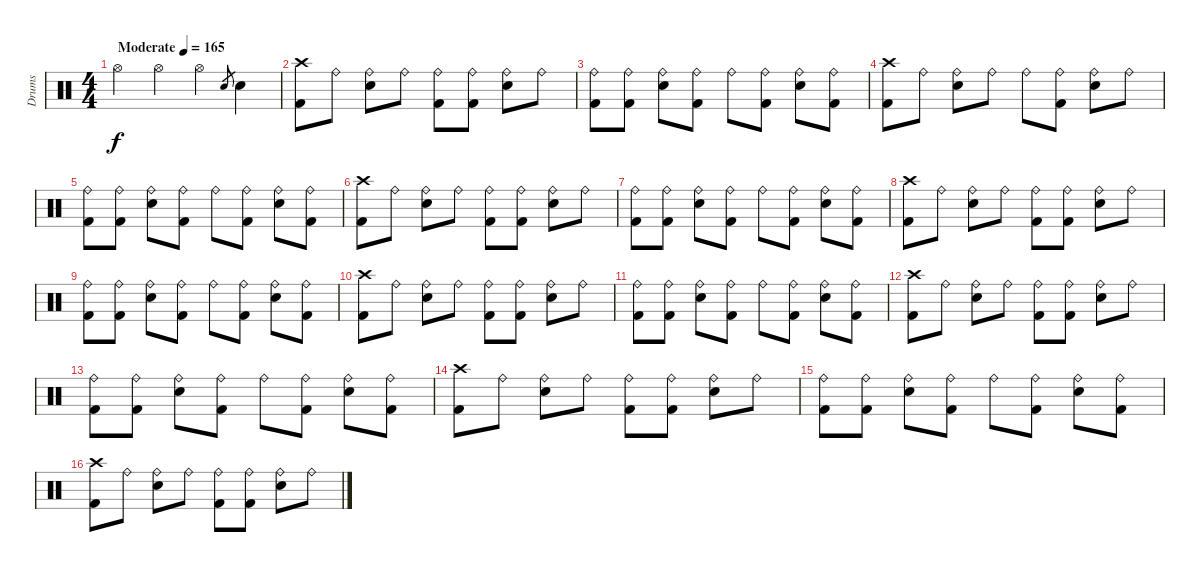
\track ("Drums" "Drums") {instrument percussion}
\staff {score}
\articulation defaults
\ts (4 4)
\tempo (165 "Moderate")
\clef neutral
\ks c "Hi-Hat (open)".4{dy f} "Hi-Hat (open)".4 "Hi-Hat (open)".4 "Snare (hit) 2".8{gr} "Snare (hit) 2".4
|
("Crash high (hit)" "Kick (hit) 2").8 "Ride (bell)".8 ("Ride (bell)" "Snare (hit) 2").8 "Ride (bell)".8 ("Ride (bell)" "Kick (hit) 2").8 ("Ride (bell)" "Kick (hit) 2").8 ("Ride (bell)" "Snare (hit) 2").8 "Ride (bell)".8 |
("Ride (bell)" "Kick (hit) 2").8 ("Ride (bell)" "Kick (hit) 2").8 ("Ride (bell)" "Snare (hit) 2").8 ("Ride (bell)" "Kick (hit) 2").8 "Ride (bell)".8 ("Ride (bell)" "Kick (hit) 2").8 ("Ride (bell)" "Snare (hit) 2").8 ("Ride (bell)" "Kick (hit) 2").8 |
("Crash high (hit)" "Kick (hit) 2").8 "Ride (bell)".8 ("Ride (bell)" "Snare (hit) 2").8 "Ride (bell)".8 "Ride (bell)".8 ("Ride (bell)" "Kick (hit) 2").8 ("Ride (bell)" "Snare (hit) 2").8 "Ride (bell)".8 |
("Ride (bell)" "Kick (hit) 2").8 ("Ride (bell)" "Kick (hit) 2").8 ("Ride (bell)" "Snare (hit) 2").8 ("Ride (bell)" "Kick (hit) 2").8 "Ride (bell)".8 ("Ride (bell)" "Kick (hit) 2").8 ("Ride (bell)" "Snare (hit) 2").8 ("Ride (bell)" "Kick (hit) 2").8 |
("Crash high (hit)" "Kick (hit) 2").8 "Ride (bell)".8 ("Ride (bell)" "Snare (hit) 2").8 "Ride (bell)".8 ("Ride (bell)" "Kick (hit) 2").8 ("Ride (bell)" "Kick (hit) 2").8 ("Ride (bell)" "Snare (hit) 2").8 "Ride (bell)".8 |
("Ride (bell)" "Kick (hit) 2").8 ("Ride (bell)" "Kick (hit) 2").8 ("Ride (bell)" "Snare (hit) 2").8 ("Ride (bell)" "Kick (hit) 2").8 "Ride (bell)".8 ("Ride (bell)" "Kick (hit) 2").8 ("Ride (bell)" "Snare (hit) 2").8 ("Ride (bell)" "Kick (hit) 2").8 |
("Crash high (hit)" "Kick (hit) 2").8 "Ride (bell)".8 ("Ride (bell)" "Snare (hit) 2").8 "Ride (bell)".8 ("Ride (bell)" "Kick (hit) 2").8 ("Ride (bell)" "Kick (hit) 2").8 ("Ride (bell)" "Snare (hit) 2").8 "Ride (bell)".8 |
("Ride (bell)" "Kick (hit) 2").8 ("Ride (bell)" "Kick (hit) 2").8 ("Ride (bell)" "Snare (hit) 2").8 ("Ride (bell)" "Kick (hit) 2").8 "Ride (bell)".8 ("Ride (bell)" "Kick (hit) 2").8 ("Ride (bell)" "Snare (hit) 2").8 ("Ride (bell)" "Kick (hit) 2").8 |
("Crash high (hit)" "Kick (hit) 2").8 "Ride (bell)".8 ("Ride (bell)" "Snare (hit) 2").8 "Ride (bell)".8 ("Ride (bell)" "Kick (hit) 2").8 ("Ride (bell)" "Kick (hit) 2").8 ("Ride (bell)" "Snare (hit) 2").8 "Ride (bell)".8 |
("Ride (bell)" "Kick (hit) 2").8 ("Ride (bell)" "Kick (hit) 2").8 ("Ride (bell)" "Snare (hit) 2").8 ("Ride (bell)" "Kick (hit) 2").8 "Ride (bell)".8 ("Ride (bell)" "Kick (hit) 2").8 ("Ride (bell)" "Snare (hit) 2").8 ("Ride (bell)" "Kick (hit) 2").8 |
("Crash high (hit)" "Kick (hit) 2").8 "Ride (bell)".8 ("Ride (bell)" "Snare (hit) 2").8 "Ride (bell)".8 ("Ride (bell)" "Kick (hit) 2").8 ("Ride (bell)" "Kick (hit) 2").8 ("Ride (bell)" "Snare (hit) 2").8 "Ride (bell)".8 |
("Ride (bell)" "Kick (hit) 2").8 ("Ride (bell)" "Kick (hit) 2").8 ("Ride (bell)" "Snare (hit) 2").8 ("Ride (bell)" "Kick (hit) 2").8 "Ride (bell)".8 ("Ride (bell)" "Kick (hit) 2").8 ("Ride (bell)" "Snare (hit) 2").8 ("Ride (bell)" "Kick (hit) 2").8 |
("Crash high (hit)" "Kick (hit) 2").8 "Ride (bell)".8 ("Ride (bell)" "Snare (hit) 2").8 "Ride (bell)".8 ("Ride (bell)" "Kick (hit) 2").8 ("Ride (bell)" "Kick (hit) 2").8 ("Ride (bell)" "Snare (hit) 2").8 "Ride (bell)".8 |
("Ride (bell)" "Kick (hit) 2").8 ("Ride (bell)" "Kick (hit) 2").8 ("Ride (bell)" "Snare (hit) 2").8 ("Ride (bell)" "Kick (hit) 2").8 "Ride (bell)".8 ("Ride (bell)" "Kick (hit) 2").8 ("Ride (bell)" "Snare (hit) 2").8 ("Ride (bell)" "Kick (hit) 2").8 |
("Crash high (hit)" "Kick (hit) 2").8 "Ride (bell)".8 ("Ride (bell)" "Snare (hit) 2").8 "Ride (bell)".8 ("Ride (bell)" "Kick (hit) 2").8 ("Ride (bell)" "Kick (hit) 2").8 ("Ride (bell)" "Snare (hit) 2").8 "Ride (bell)".8
